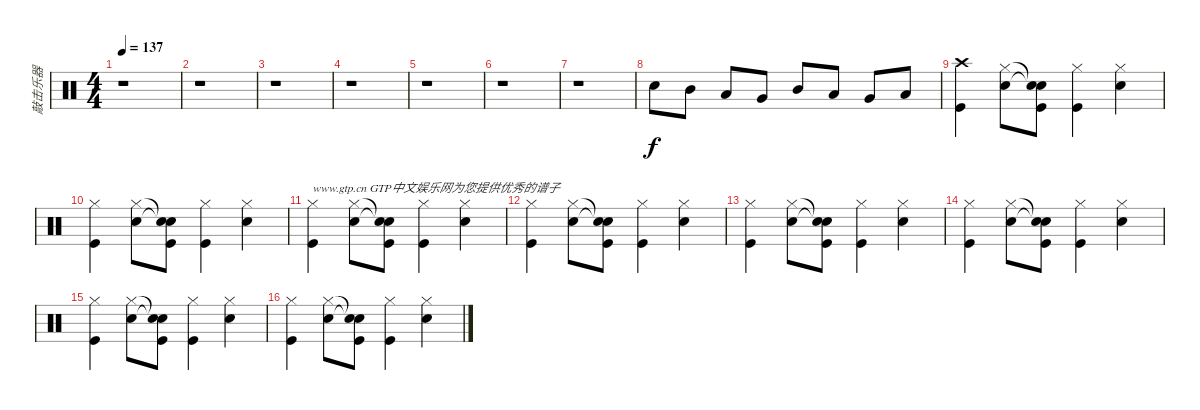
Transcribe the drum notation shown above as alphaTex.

\track ("敲击乐器" "敲击乐器") {instrument percussion}
\staff {score}
\articulation defaults
\ts (4 4)
\tempo 137
\clef neutral
\ks c
r.1{dy f} |
r.1 |
r.1 |
r.1 |
r.1 |
r.1 |
r.1 |
"Snare (hit) 2".8 "Mid Tom (hit)".8 "Low Tom (hit)".8 "Very Low Tom (hit)".8 "Mid Tom (hit)".8 "Low Tom (hit)".8 "Very Low Tom (hit)".8 "Low Floor Tom (hit)".8 |
("Crash high (hit)" "Kick (hit)").4 ("Hi-Hat (closed)" "Snare (hit) 2").8 ("Snare (hit)"{t} "Snare (hit)"{t} "Kick (hit)").8 ("Hi-Hat (closed)" "Kick (hit)").4 ("Hi-Hat (closed)" "Snare (hit) 2").4 |
("Hi-Hat (closed)" "Kick (hit)").4 ("Hi-Hat (closed)" "Snare (hit) 2").8 ("Snare (hit)"{t} "Snare (hit)"{t} "Kick (hit)").8 ("Hi-Hat (closed)" "Kick (hit)").4 ("Hi-Hat (closed)" "Snare (hit) 2").4 |
("Hi-Hat (closed)" "Kick (hit)").4{txt "www.gtp.cn GTP中文娱乐网为您提供优秀的谱子"} ("Hi-Hat (closed)" "Snare (hit) 2").8 ("Snare (hit)"{t} "Snare (hit)"{t} "Kick (hit)").8 ("Hi-Hat (closed)" "Kick (hit)").4 ("Hi-Hat (closed)" "Snare (hit) 2").4 |
("Hi-Hat (closed)" "Kick (hit)").4 ("Hi-Hat (closed)" "Snare (hit) 2").8 ("Snare (hit)"{t} "Snare (hit)"{t} "Kick (hit)").8 ("Hi-Hat (closed)" "Kick (hit)").4 ("Hi-Hat (closed)" "Snare (hit) 2").4 |
("Hi-Hat (closed)" "Kick (hit)").4 ("Hi-Hat (closed)" "Snare (hit) 2").8 ("Snare (hit)"{t} "Snare (hit)"{t} "Kick (hit)").8 ("Hi-Hat (closed)" "Kick (hit)").4 ("Hi-Hat (closed)" "Snare (hit) 2").4 |
("Hi-Hat (closed)" "Kick (hit)").4 ("Hi-Hat (closed)" "Snare (hit) 2").8 ("Snare (hit)"{t} "Snare (hit)"{t} "Kick (hit)").8 ("Hi-Hat (closed)" "Kick (hit)").4 ("Hi-Hat (closed)" "Snare (hit) 2").4 |
("Hi-Hat (closed)" "Kick (hit)").4 ("Hi-Hat (closed)" "Snare (hit) 2").8 ("Snare (hit)"{t} "Snare (hit)"{t} "Kick (hit)").8 ("Hi-Hat (closed)" "Kick (hit)").4 ("Hi-Hat (closed)" "Snare (hit) 2").4 |
("Hi-Hat (closed)" "Kick (hit)").4 ("Hi-Hat (closed)" "Snare (hit) 2").8 ("Snare (hit)"{t} "Snare (hit)"{t} "Kick (hit)").8 ("Hi-Hat (closed)" "Kick (hit)").4 ("Hi-Hat (closed)" "Snare (hit) 2").4
